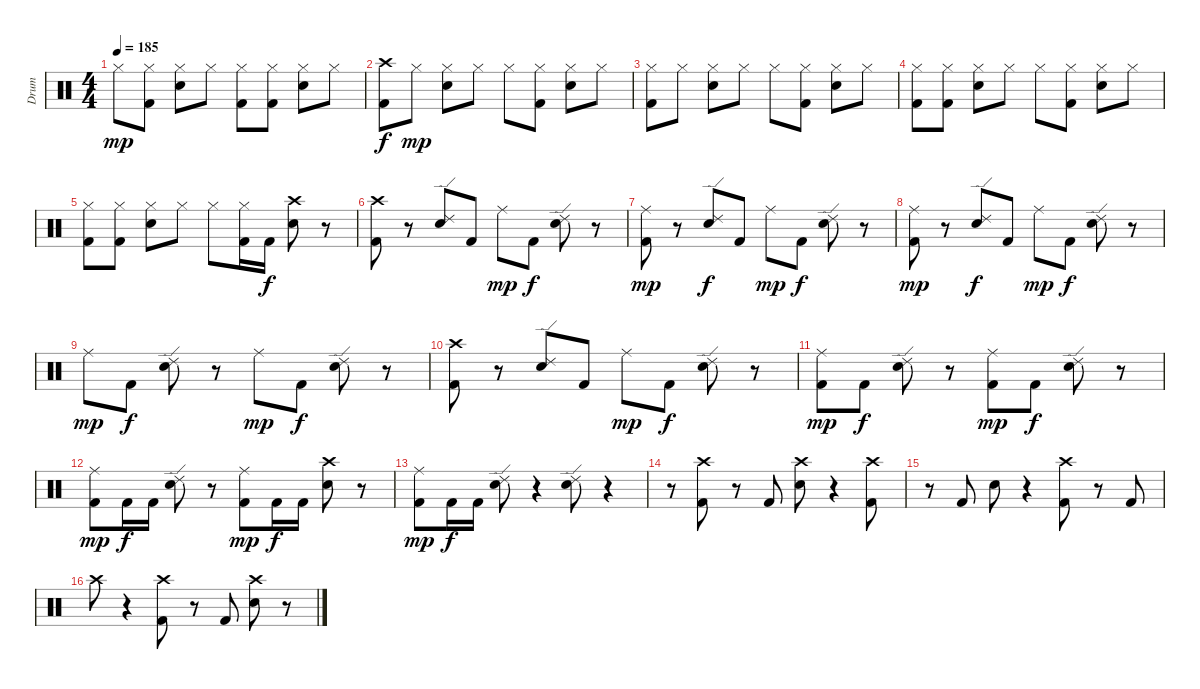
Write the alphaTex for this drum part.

\track ("Drum" "Drum") {instrument percussion}
\staff {score}
\articulation defaults
\ts (4 4)
\tempo 185
\clef neutral
\ks c "Hi-Hat (closed)".8{dy mp}
("Hi-Hat (closed)" "Kick (hit) 2").8 ("Hi-Hat (closed)" "Electric Snare (hit)").8 "Hi-Hat (closed)".8 ("Hi-Hat (closed)" "Kick (hit) 2").8 ("Hi-Hat (closed)" "Kick (hit) 2").8 ("Hi-Hat (closed)" "Electric Snare (hit)").8 "Hi-Hat (closed)".8 |
("Crash high (hit)" "Kick (hit) 2").8{dy f} "Hi-Hat (closed)".8{dy mp} ("Hi-Hat (closed)" "Electric Snare (hit)").8 "Hi-Hat (closed)".8 "Hi-Hat (closed)".8 ("Hi-Hat (closed)" "Kick (hit) 2").8 ("Hi-Hat (closed)" "Electric Snare (hit)").8 "Hi-Hat (closed)".8 |
("Kick (hit) 2" "Hi-Hat (closed)").8 "Hi-Hat (closed)".8 ("Hi-Hat (closed)" "Electric Snare (hit)").8 "Hi-Hat (closed)".8 "Hi-Hat (closed)".8 ("Hi-Hat (closed)" "Kick (hit) 2").8 ("Hi-Hat (closed)" "Electric Snare (hit)").8 "Hi-Hat (closed)".8 |
("Kick (hit) 2" "Hi-Hat (closed)").8 ("Hi-Hat (closed)" "Kick (hit) 2").8 ("Hi-Hat (closed)" "Electric Snare (hit)").8 "Hi-Hat (closed)".8 "Hi-Hat (closed)".8 ("Hi-Hat (closed)" "Kick (hit) 2").8 ("Hi-Hat (closed)" "Electric Snare (hit)").8 "Hi-Hat (closed)".8 |
("Hi-Hat (closed)" "Kick (hit) 2").8 ("Hi-Hat (closed)" "Kick (hit) 2").8 ("Hi-Hat (closed)" "Electric Snare (hit)").8 "Hi-Hat (closed)".8 "Hi-Hat (closed)".8 ("Hi-Hat (closed)" "Kick (hit) 2").16 "Kick (hit) 2".16{dy f} ("Electric Snare (hit)" "Crash high (hit)").8 r.8 |
("Crash high (hit)" "Kick (hit) 2").8 r.8 ("Ride (edge) 2" "Electric Snare (hit)").8 "Kick (hit) 2".8 "Ride (middle)".8{dy mp} "Kick (hit) 2".8{dy f} ("Ride (edge) 2" "Electric Snare (hit)").8 r.8 |
("Ride (middle)" "Kick (hit) 2").8{dy mp} r.8 ("Ride (edge) 2" "Electric Snare (hit)").8{dy f} "Kick (hit) 2".8 "Ride (middle)".8{dy mp} "Kick (hit) 2".8{dy f} ("Ride (edge) 2" "Electric Snare (hit)").8 r.8 |
("Ride (middle)" "Kick (hit) 2").8{dy mp} r.8 ("Ride (edge) 2" "Electric Snare (hit)").8{dy f} "Kick (hit) 2".8 "Ride (middle)".8{dy mp} "Kick (hit) 2".8{dy f} ("Ride (edge) 2" "Electric Snare (hit)").8 r.8 |
"Ride (middle)".8{dy mp} "Kick (hit) 2".8{dy f} ("Ride (edge) 2" "Electric Snare (hit)").8 r.8 "Ride (middle)".8{dy mp} "Kick (hit) 2".8{dy f} ("Ride (edge) 2" "Electric Snare (hit)").8 r.8 |
("Crash high (hit)" "Kick (hit) 2").8 r.8 ("Ride (edge) 2" "Electric Snare (hit)").8 "Kick (hit) 2".8 "Ride (middle)".8{dy mp} "Kick (hit) 2".8{dy f} ("Ride (edge) 2" "Electric Snare (hit)").8 r.8 |
("Ride (middle)" "Kick (hit) 2").8{dy mp} "Kick (hit) 2".8{dy f} ("Ride (edge) 2" "Electric Snare (hit)").8 r.8 ("Ride (middle)" "Kick (hit) 2").8{dy mp} "Kick (hit) 2".8{dy f} ("Ride (edge) 2" "Electric Snare (hit)").8 r.8 |
("Ride (middle)" "Kick (hit) 2").8{dy mp} "Kick (hit) 2".16{dy f} "Kick (hit) 2".16 ("Ride (edge) 2" "Electric Snare (hit)").8 r.8 ("Ride (middle)" "Kick (hit) 2").8{dy mp} "Kick (hit) 2".16{dy f} "Kick (hit) 2".16 ("Crash high (hit)" "Electric Snare (hit)").8 r.8 |
("Ride (middle)" "Kick (hit) 2").8{dy mp} "Kick (hit) 2".16{dy f} "Kick (hit) 2".16 ("Ride (edge) 2" "Electric Snare (hit)").8 r.4 ("Ride (edge) 2" "Electric Snare (hit)").8 r.4 |
r.8 ("Crash high (hit)" "Kick (hit) 2").8 r.8 "Kick (hit) 2".8 ("Crash high (hit)" "Electric Snare (hit)").8 r.4 ("Crash high (hit)" "Kick (hit) 2").8 |
r.8 "Kick (hit) 2".8 "Electric Snare (hit)".8 r.4 ("Kick (hit) 2" "Crash high (hit)").8 r.8 "Kick (hit) 2".8 |
"Crash high (hit)".8 r.4 ("Crash high (hit)" "Kick (hit) 2").8 r.8 "Kick (hit) 2".8 ("Crash high (hit)" "Electric Snare (hit)").8 r.8
